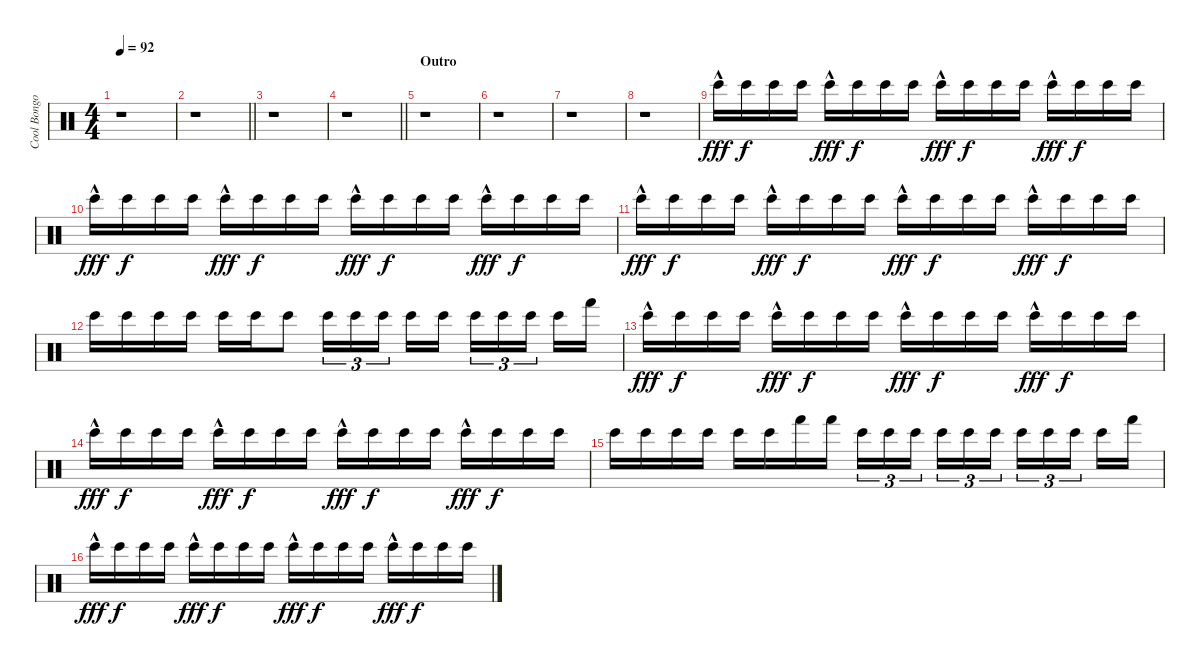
\track ("Cool Bongo Background" "Cool Bongo") {instrument percussion}
\staff {score}
\articulation defaults
\ts (4 4)
\tempo 92
\clef neutral
\ks c
r.1{dy f} |
\barLineRight lightlight
r.1 |
r.1 |
\barLineRight lightlight
r.1 |
\section ("" "Outro")
r.1 |
r.1 |
r.1 |
r.1{volume 4} |
"Bongo High (hit)"{hac}.16{dy fff volume 14} "Bongo High (hit)".16{dy f} "Bongo High (hit)".16 "Bongo High (hit)".16 "Bongo High (hit)"{hac}.16{dy fff} "Bongo High (hit)".16{dy f} "Bongo High (hit)".16 "Bongo High (hit)".16 "Bongo High (hit)"{hac}.16{dy fff} "Bongo High (hit)".16{dy f} "Bongo High (hit)".16 "Bongo High (hit)".16 "Bongo High (hit)"{hac}.16{dy fff} "Bongo High (hit)".16{dy f} "Bongo High (hit)".16 "Bongo High (hit)".16 |
"Bongo High (hit)"{hac}.16{dy fff} "Bongo High (hit)".16{dy f} "Bongo High (hit)".16 "Bongo High (hit)".16 "Bongo High (hit)"{hac}.16{dy fff} "Bongo High (hit)".16{dy f} "Bongo High (hit)".16 "Bongo High (hit)".16 "Bongo High (hit)"{hac}.16{dy fff} "Bongo High (hit)".16{dy f} "Bongo High (hit)".16 "Bongo High (hit)".16 "Bongo High (hit)"{hac}.16{dy fff} "Bongo High (hit)".16{dy f} "Bongo High (hit)".16 "Bongo High (hit)".16 |
"Bongo High (hit)"{hac}.16{dy fff} "Bongo High (hit)".16{dy f} "Bongo High (hit)".16 "Bongo High (hit)".16 "Bongo High (hit)"{hac}.16{dy fff} "Bongo High (hit)".16{dy f} "Bongo High (hit)".16 "Bongo High (hit)".16 "Bongo High (hit)"{hac}.16{dy fff} "Bongo High (hit)".16{dy f} "Bongo High (hit)".16 "Bongo High (hit)".16 "Bongo High (hit)"{hac}.16{dy fff} "Bongo High (hit)".16{dy f} "Bongo High (hit)".16 "Bongo High (hit)".16 |
"Bongo High (hit)".16 "Bongo High (hit)".16 "Bongo High (hit)".16 "Bongo High (hit)".16 "Bongo High (hit)".16 "Bongo High (hit)".16 "Bongo High (hit)".8 "Bongo High (hit)".16{tu (3 2) volume 16} "Bongo High (hit)".16{tu (3 2)} "Bongo High (hit)".16{tu (3 2) beam splitsecondary} "Bongo High (hit)".16 "Bongo High (hit)".16 "Bongo High (hit)".16{tu (3 2)} "Bongo High (hit)".16{tu (3 2)} "Bongo High (hit)".16{tu (3 2) beam splitsecondary} "Bongo High (hit)".16{volume 8} "Hand (hit)".16 |
"Bongo High (hit)"{hac}.16{dy fff} "Bongo High (hit)".16{dy f} "Bongo High (hit)".16 "Bongo High (hit)".16 "Bongo High (hit)"{hac}.16{dy fff} "Bongo High (hit)".16{dy f} "Bongo High (hit)".16 "Bongo High (hit)".16 "Bongo High (hit)"{hac}.16{dy fff} "Bongo High (hit)".16{dy f} "Bongo High (hit)".16 "Bongo High (hit)".16 "Bongo High (hit)"{hac}.16{dy fff} "Bongo High (hit)".16{dy f} "Bongo High (hit)".16 "Bongo High (hit)".16 |
"Bongo High (hit)"{hac}.16{dy fff} "Bongo High (hit)".16{dy f} "Bongo High (hit)".16 "Bongo High (hit)".16 "Bongo High (hit)"{hac}.16{dy fff} "Bongo High (hit)".16{dy f} "Bongo High (hit)".16 "Bongo High (hit)".16 "Bongo High (hit)"{hac}.16{dy fff} "Bongo High (hit)".16{dy f} "Bongo High (hit)".16 "Bongo High (hit)".16 "Bongo High (hit)"{hac}.16{dy fff} "Bongo High (hit)".16{dy f} "Bongo High (hit)".16 "Bongo High (hit)".16 |
"Bongo High (hit)".16 "Bongo High (hit)".16 "Bongo High (hit)".16 "Bongo High (hit)".16 "Bongo High (hit)".16 "Bongo High (hit)".16 "Hand (hit)".16 "Hand (hit)".16 "Bongo High (hit)".16{tu (3 2)} "Bongo High (hit)".16{tu (3 2)} "Bongo High (hit)".16{tu (3 2) beam splitsecondary} "Bongo High (hit)".16{tu (3 2)} "Bongo High (hit)".16{tu (3 2)} "Bongo High (hit)".16{tu (3 2)} "Bongo High (hit)".16{tu (3 2)} "Bongo High (hit)".16{tu (3 2)} "Bongo High (hit)".16{tu (3 2) beam splitsecondary} "Bongo High (hit)".16 "Hand (hit)".16 |
"Bongo High (hit)"{hac}.16{dy fff} "Bongo High (hit)".16{dy f} "Bongo High (hit)".16 "Bongo High (hit)".16 "Bongo High (hit)"{hac}.16{dy fff} "Bongo High (hit)".16{dy f} "Bongo High (hit)".16 "Bongo High (hit)".16 "Bongo High (hit)"{hac}.16{dy fff} "Bongo High (hit)".16{dy f} "Bongo High (hit)".16 "Bongo High (hit)".16 "Bongo High (hit)"{hac}.16{dy fff} "Bongo High (hit)".16{dy f} "Bongo High (hit)".16 "Bongo High (hit)".16
